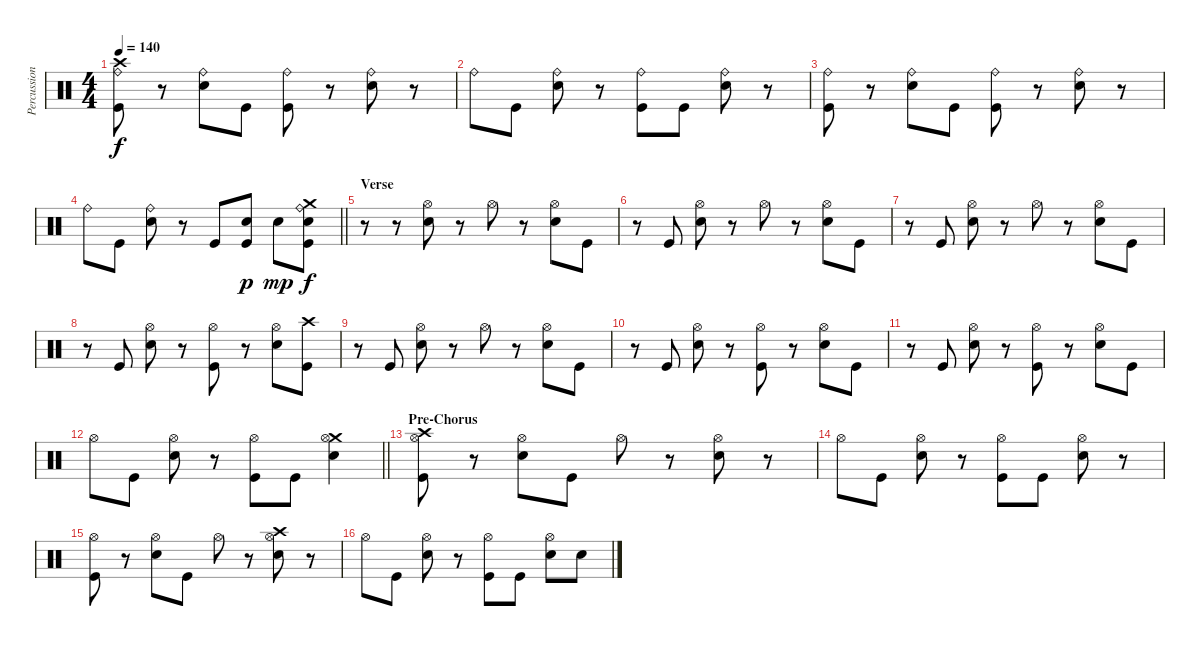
\track ("Percussion" "Percussion") {instrument percussion}
\staff {score}
\articulation defaults
\ts (4 4)
\tempo 140
\clef neutral
\ks c
("Crash high (hit)" "Ride (bell)" "Kick (hit)").8{dy f} r.8 ("Ride (bell)" "Snare (hit) 2").8 "Kick (hit)".8 ("Ride (bell)" "Kick (hit)").8 r.8 ("Ride (bell)" "Snare (hit) 2").8 r.8 |
"Ride (bell)".8 "Kick (hit)".8 ("Ride (bell)" "Snare (hit) 2").8 r.8 ("Ride (bell)" "Kick (hit)").8 "Kick (hit)".8 ("Ride (bell)" "Snare (hit) 2").8 r.8 |
("Ride (bell)" "Kick (hit)").8 r.8 ("Ride (bell)" "Snare (hit) 2").8 "Kick (hit)".8 ("Ride (bell)" "Kick (hit)").8 r.8 ("Ride (bell)" "Snare (hit) 2").8 r.8 |
\barLineRight lightlight "Ride (bell)".8 "Kick (hit)".8
("Ride (bell)" "Snare (hit) 2").8 r.8 "Kick (hit)".8 ("Snare (hit) 2" "Kick (hit)").8{dy p} "Snare (hit) 2".8{dy mp} ("Crash medium (hit)" "Ride (bell)" "Snare (hit) 2" "Kick (hit)").8{dy f} |
\section ("" "Verse")
r.8 r.8 ("Hi-Hat (open)" "Snare (hit) 2").8 r.8 "Hi-Hat (open)".8 r.8 ("Hi-Hat (open)" "Snare (hit) 2").8 "Kick (hit)".8 |
r.8 "Kick (hit)".8 ("Hi-Hat (open)" "Snare (hit) 2").8 r.8 "Hi-Hat (open)".8 r.8 ("Hi-Hat (open)" "Snare (hit) 2").8 "Kick (hit)".8 |
r.8 "Kick (hit)".8 ("Hi-Hat (open)" "Snare (hit) 2").8 r.8 "Hi-Hat (open)".8 r.8 ("Hi-Hat (open)" "Snare (hit) 2").8 "Kick (hit)".8 |
r.8 "Kick (hit)".8 ("Hi-Hat (open)" "Snare (hit) 2").8 r.8 ("Hi-Hat (open)" "Kick (hit)").8 r.8 ("Hi-Hat (open)" "Snare (hit) 2").8 ("Crash high (hit)" "Kick (hit)").8 |
r.8 "Kick (hit)".8 ("Hi-Hat (open)" "Snare (hit) 2").8 r.8 "Hi-Hat (open)".8 r.8 ("Hi-Hat (open)" "Snare (hit) 2").8 "Kick (hit)".8 |
r.8 "Kick (hit)".8 ("Hi-Hat (open)" "Snare (hit) 2").8 r.8 ("Hi-Hat (open)" "Kick (hit)").8 r.8 ("Hi-Hat (open)" "Snare (hit) 2").8 "Kick (hit)".8 |
r.8 "Kick (hit)".8 ("Hi-Hat (open)" "Snare (hit) 2").8 r.8 ("Hi-Hat (open)" "Kick (hit)").8 r.8 ("Hi-Hat (open)" "Snare (hit) 2").8 "Kick (hit)".8 |
\barLineRight lightlight "Hi-Hat (open)".8 "Kick (hit)".8
("Hi-Hat (open)" "Snare (hit) 2").8 r.8 ("Hi-Hat (open)" "Kick (hit)").8 "Kick (hit)".8 ("Crash medium (hit)" "Hi-Hat (open)" "Snare (hit) 2").4 |
\section ("" "Pre-Chorus")
("Crash high (hit)" "Hi-Hat (open)" "Kick (hit)").8 r.8 ("Hi-Hat (open)" "Snare (hit) 2").8 "Kick (hit)".8 "Hi-Hat (open)".8 r.8 ("Hi-Hat (open)" "Snare (hit) 2").8 r.8 |
"Hi-Hat (open)".8 "Kick (hit)".8 ("Hi-Hat (open)" "Snare (hit) 2").8 r.8 ("Hi-Hat (open)" "Kick (hit)").8 "Kick (hit)".8 ("Hi-Hat (open)" "Snare (hit) 2").8 r.8 |
("Hi-Hat (open)" "Kick (hit)").8 r.8 ("Hi-Hat (open)" "Snare (hit) 2").8 "Kick (hit)".8 "Hi-Hat (open)".8 r.8 ("Crash high (hit)" "Hi-Hat (open)" "Snare (hit) 2").8 r.8 |
"Hi-Hat (open)".8 "Kick (hit)".8 ("Hi-Hat (open)" "Snare (hit) 2").8 r.8 ("Hi-Hat (open)" "Kick (hit)").8 "Kick (hit)".8 ("Hi-Hat (open)" "Snare (hit) 2").8 "Snare (hit) 2".8
